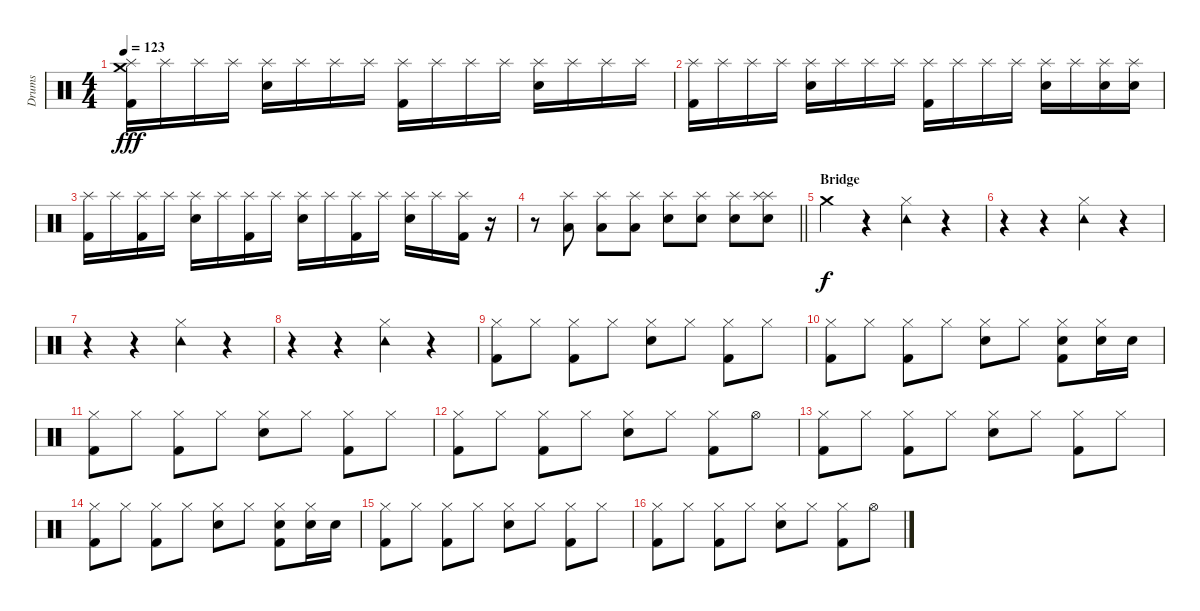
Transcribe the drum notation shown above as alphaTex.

\track ("Drums" "Drums") {instrument percussion}
\staff {score}
\articulation defaults
\ts (4 4)
\tempo 123
\clef neutral
\ks c
("Crash medium (hit)" "Splash (hit)" "Kick (hit) 2").16{dy fff} "Splash (hit)".16 "Splash (hit)".16 "Splash (hit)".16 ("Splash (hit)" "Electric Snare (hit)").16 "Splash (hit)".16 "Splash (hit)".16 "Splash (hit)".16 ("Splash (hit)" "Kick (hit) 2").16 "Splash (hit)".16 "Splash (hit)".16 "Splash (hit)".16 ("Splash (hit)" "Electric Snare (hit)").16 "Splash (hit)".16 "Splash (hit)".16 "Splash (hit)".16 |
("Splash (hit)" "Kick (hit) 2").16 "Splash (hit)".16 "Splash (hit)".16 "Splash (hit)".16 ("Splash (hit)" "Electric Snare (hit)").16 "Splash (hit)".16 "Splash (hit)".16 "Splash (hit)".16 ("Splash (hit)" "Kick (hit) 2").16 "Splash (hit)".16 "Splash (hit)".16 "Splash (hit)".16 ("Splash (hit)" "Electric Snare (hit)").16 "Splash (hit)".16 ("Splash (hit)" "Electric Snare (hit)").16 ("Splash (hit)" "Electric Snare (hit)").16 |
("Splash (hit)" "Kick (hit) 2").16 "Splash (hit)".16 ("Splash (hit)" "Kick (hit) 2").16 "Splash (hit)".16 ("Splash (hit)" "Electric Snare (hit)").16 "Splash (hit)".16 ("Splash (hit)" "Kick (hit) 2").16 "Splash (hit)".16 ("Splash (hit)" "Electric Snare (hit)").16 "Splash (hit)".16 ("Splash (hit)" "Kick (hit) 2").16 "Splash (hit)".16 ("Splash (hit)" "Electric Snare (hit)").16 "Splash (hit)".16 ("Splash (hit)" "Kick (hit) 2").16 r.16 |
\barLineRight lightlight
r.8 ("Splash (hit)" "Low Floor Tom (hit)").8 ("Splash (hit)" "Low Floor Tom (hit)").8 ("Splash (hit)" "Low Floor Tom (hit)").8 ("Splash (hit)" "Electric Snare (hit)").8 ("Splash (hit)" "Electric Snare (hit)").8 ("Splash (hit)" "Electric Snare (hit)").8 ("Splash (hit)" "Splash (hit)" "Electric Snare (hit)").8 |
\section ("" "Bridge")
"Crash medium (hit)".4{dy f} r.4 ("Hi-Hat (closed)" "Tambourine (hit)").4 r.4 |
r.4 r.4 ("Hi-Hat (closed)" "Tambourine (hit)").4 r.4 |
r.4 r.4 ("Hi-Hat (closed)" "Tambourine (hit)").4 r.4 |
r.4 r.4 ("Hi-Hat (closed)" "Tambourine (hit)").4 r.4 |
("Hi-Hat (closed)" "Kick (hit) 2").8 "Hi-Hat (closed)".8 ("Hi-Hat (closed)" "Kick (hit) 2").8 "Hi-Hat (closed)".8 ("Hi-Hat (closed)" "Electric Snare (hit)").8 "Hi-Hat (closed)".8 ("Hi-Hat (closed)" "Kick (hit) 2").8 "Hi-Hat (closed)".8 |
("Hi-Hat (closed)" "Kick (hit) 2").8 "Hi-Hat (closed)".8 ("Hi-Hat (closed)" "Kick (hit) 2").8 "Hi-Hat (closed)".8 ("Hi-Hat (closed)" "Electric Snare (hit)").8 "Hi-Hat (closed)".8 ("Hi-Hat (closed)" "Electric Snare (hit)" "Kick (hit) 2").8 ("Hi-Hat (closed)" "Electric Snare (hit)").16 "Electric Snare (hit)".16 |
("Hi-Hat (closed)" "Kick (hit) 2").8 "Hi-Hat (closed)".8 ("Hi-Hat (closed)" "Kick (hit) 2").8 "Hi-Hat (closed)".8 ("Hi-Hat (closed)" "Electric Snare (hit)").8 "Hi-Hat (closed)".8 ("Hi-Hat (closed)" "Kick (hit) 2").8 "Hi-Hat (closed)".8 |
("Hi-Hat (closed)" "Kick (hit) 2").8 "Hi-Hat (closed)".8 ("Hi-Hat (closed)" "Kick (hit) 2").8 "Hi-Hat (closed)".8 ("Hi-Hat (closed)" "Electric Snare (hit)").8 "Hi-Hat (closed)".8 ("Hi-Hat (closed)" "Kick (hit) 2").8 "Hi-Hat (open)".8 |
("Hi-Hat (closed)" "Kick (hit) 2").8 "Hi-Hat (closed)".8 ("Hi-Hat (closed)" "Kick (hit) 2").8 "Hi-Hat (closed)".8 ("Hi-Hat (closed)" "Electric Snare (hit)").8 "Hi-Hat (closed)".8 ("Hi-Hat (closed)" "Kick (hit) 2").8 "Hi-Hat (closed)".8 |
("Hi-Hat (closed)" "Kick (hit) 2").8 "Hi-Hat (closed)".8 ("Hi-Hat (closed)" "Kick (hit) 2").8 "Hi-Hat (closed)".8 ("Hi-Hat (closed)" "Electric Snare (hit)").8 "Hi-Hat (closed)".8 ("Hi-Hat (closed)" "Electric Snare (hit)" "Kick (hit) 2").8 ("Hi-Hat (closed)" "Electric Snare (hit)").16 "Electric Snare (hit)".16 |
("Hi-Hat (closed)" "Kick (hit) 2").8 "Hi-Hat (closed)".8 ("Hi-Hat (closed)" "Kick (hit) 2").8 "Hi-Hat (closed)".8 ("Hi-Hat (closed)" "Electric Snare (hit)").8 "Hi-Hat (closed)".8 ("Hi-Hat (closed)" "Kick (hit) 2").8 "Hi-Hat (closed)".8 |
("Hi-Hat (closed)" "Kick (hit) 2").8 "Hi-Hat (closed)".8 ("Hi-Hat (closed)" "Kick (hit) 2").8 "Hi-Hat (closed)".8 ("Hi-Hat (closed)" "Electric Snare (hit)").8 "Hi-Hat (closed)".8 ("Hi-Hat (closed)" "Kick (hit) 2").8 "Hi-Hat (open)".8
